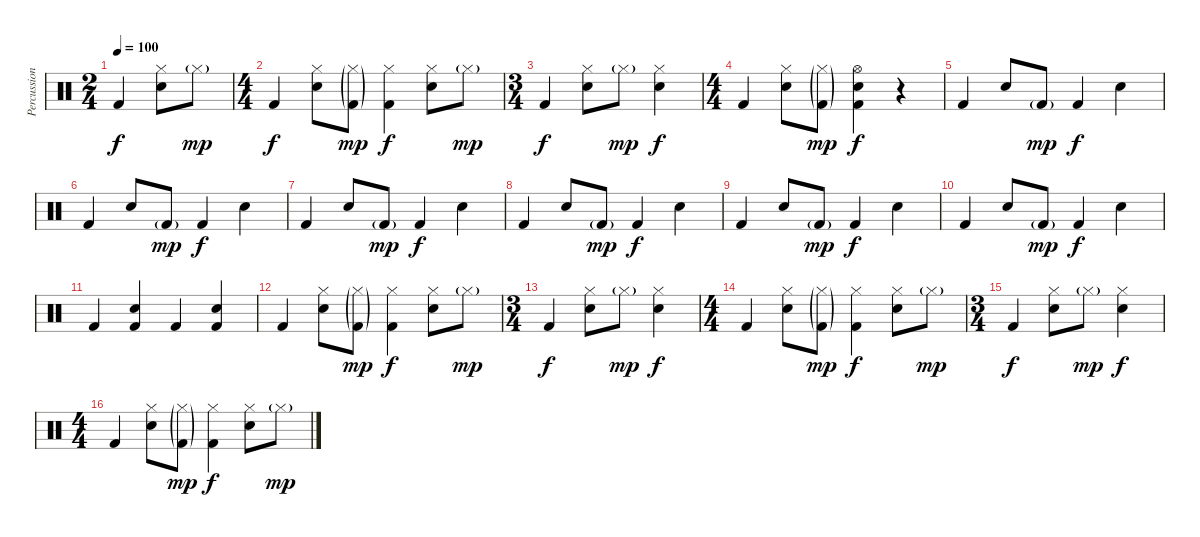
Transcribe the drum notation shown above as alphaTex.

\track ("Percussion" "Percussion") {instrument percussion}
\staff {score}
\articulation defaults
\ts (2 4)
\tempo 100
\clef neutral
\ks c "Kick (hit) 2".4{dy f}
("Hi-Hat (closed)" "Snare (hit) 2").8 "Hi-Hat (closed)"{g}.8{dy mp} |
\ts (4 4)
"Kick (hit) 2".4{dy f} ("Hi-Hat (closed)" "Snare (hit) 2").8 ("Hi-Hat (closed)"{g} "Kick (hit) 2"{g}).8{dy mp} ("Hi-Hat (closed)" "Kick (hit) 2").4{dy f} ("Hi-Hat (closed)" "Snare (hit) 2").8 "Hi-Hat (closed)"{g}.8{dy mp} |
\ts (3 4)
"Kick (hit) 2".4{dy f} ("Hi-Hat (closed)" "Snare (hit) 2").8 "Hi-Hat (closed)"{g}.8{dy mp} ("Hi-Hat (closed)" "Snare (hit) 2").4{dy f} |
\ts (4 4)
"Kick (hit) 2".4 ("Hi-Hat (closed)" "Snare (hit) 2").8 ("Hi-Hat (closed)"{g} "Kick (hit) 2"{g}).8{dy mp} ("Hi-Hat (open)" "Snare (hit) 2" "Kick (hit) 2").4{dy f} r.4 |
"Kick (hit) 2".4 "Snare (hit) 2".8 "Kick (hit) 2"{g}.8{dy mp} "Kick (hit) 2".4{dy f} "Snare (hit) 2".4 |
"Kick (hit) 2".4 "Snare (hit) 2".8 "Kick (hit) 2"{g}.8{dy mp} "Kick (hit) 2".4{dy f} "Snare (hit) 2".4 |
"Kick (hit) 2".4 "Snare (hit) 2".8 "Kick (hit) 2"{g}.8{dy mp} "Kick (hit) 2".4{dy f} "Snare (hit) 2".4 |
"Kick (hit) 2".4 "Snare (hit) 2".8 "Kick (hit) 2"{g}.8{dy mp} "Kick (hit) 2".4{dy f} "Snare (hit) 2".4 |
"Kick (hit) 2".4 "Snare (hit) 2".8 "Kick (hit) 2"{g}.8{dy mp} "Kick (hit) 2".4{dy f} "Snare (hit) 2".4 |
"Kick (hit) 2".4 "Snare (hit) 2".8 "Kick (hit) 2"{g}.8{dy mp} "Kick (hit) 2".4{dy f} "Snare (hit) 2".4 |
"Kick (hit) 2".4 ("Snare (hit) 2" "Kick (hit) 2").4 "Kick (hit) 2".4 ("Snare (hit) 2" "Kick (hit) 2").4 |
"Kick (hit) 2".4 ("Hi-Hat (closed)" "Snare (hit) 2").8 ("Hi-Hat (closed)"{g} "Kick (hit) 2"{g}).8{dy mp} ("Hi-Hat (closed)" "Kick (hit) 2").4{dy f} ("Hi-Hat (closed)" "Snare (hit) 2").8 "Hi-Hat (closed)"{g}.8{dy mp} |
\ts (3 4)
"Kick (hit) 2".4{dy f} ("Hi-Hat (closed)" "Snare (hit) 2").8 "Hi-Hat (closed)"{g}.8{dy mp} ("Hi-Hat (closed)" "Snare (hit) 2").4{dy f} |
\ts (4 4)
"Kick (hit) 2".4 ("Hi-Hat (closed)" "Snare (hit) 2").8 ("Hi-Hat (closed)"{g} "Kick (hit) 2"{g}).8{dy mp} ("Hi-Hat (closed)" "Kick (hit) 2").4{dy f} ("Hi-Hat (closed)" "Snare (hit) 2").8 "Hi-Hat (closed)"{g}.8{dy mp} |
\ts (3 4)
"Kick (hit) 2".4{dy f} ("Hi-Hat (closed)" "Snare (hit) 2").8 "Hi-Hat (closed)"{g}.8{dy mp} ("Hi-Hat (closed)" "Snare (hit) 2").4{dy f} |
\ts (4 4)
"Kick (hit) 2".4 ("Hi-Hat (closed)" "Snare (hit) 2").8 ("Hi-Hat (closed)"{g} "Kick (hit) 2"{g}).8{dy mp} ("Hi-Hat (closed)" "Kick (hit) 2").4{dy f} ("Hi-Hat (closed)" "Snare (hit) 2").8 "Hi-Hat (closed)"{g}.8{dy mp}
